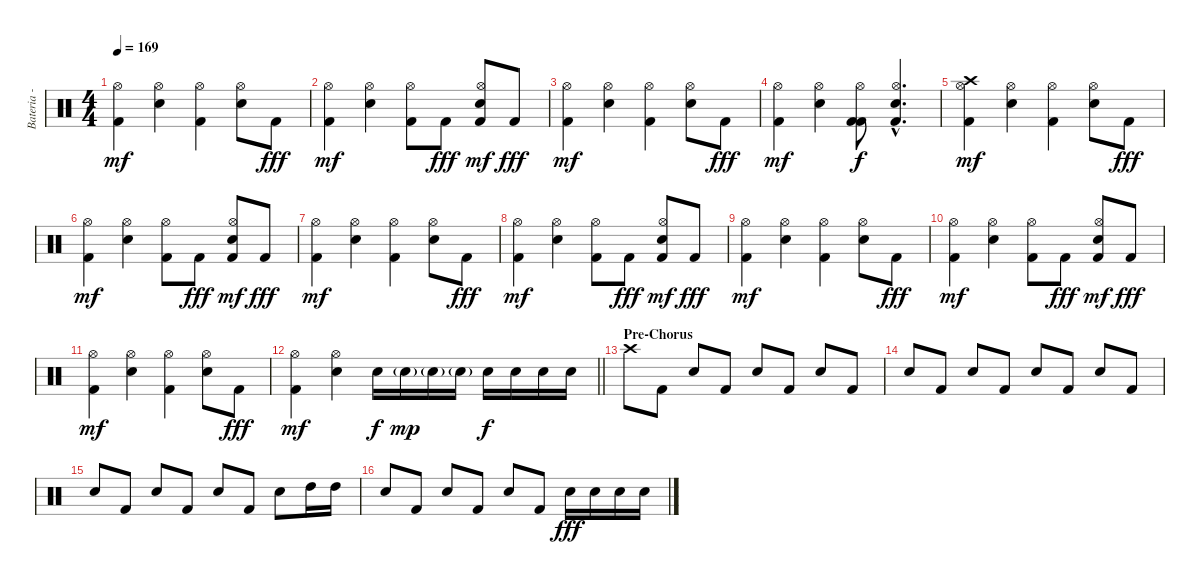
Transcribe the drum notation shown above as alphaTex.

\track ("Bateria - Larzon" "Bateria - ") {instrument percussion}
\staff {score}
\articulation defaults
\ts (4 4)
\tempo 169
\clef neutral
\ks c
("Kick (hit) 2" "Hi-Hat (open)").4{dy mf} ("Electric Snare (hit)" "Hi-Hat (open)").4 ("Kick (hit) 2" "Hi-Hat (open)").4 ("Electric Snare (hit)" "Hi-Hat (open)").8 "Kick (hit) 2".8{dy fff} |
("Kick (hit) 2" "Hi-Hat (open)").4{dy mf} ("Electric Snare (hit)" "Hi-Hat (open)").4 ("Kick (hit) 2" "Hi-Hat (open)").8 "Kick (hit) 2".8{dy fff} ("Electric Snare (hit)" "Kick (hit) 2" "Hi-Hat (open)").8{dy mf} "Kick (hit) 2".8{dy fff} |
("Kick (hit) 2" "Hi-Hat (open)").4{dy mf} ("Electric Snare (hit)" "Hi-Hat (open)").4 ("Kick (hit) 2" "Hi-Hat (open)").4 ("Electric Snare (hit)" "Hi-Hat (open)").8 "Kick (hit) 2".8{dy fff} |
("Kick (hit) 2" "Hi-Hat (open)").4{dy mf} ("Electric Snare (hit)" "Hi-Hat (open)").4 ("Kick (hit) 2" "Kick (hit) 2" "Hi-Hat (open)").8{dy f} ("Electric Snare (hit)"{hac} "Kick (hit) 2"{hac} "Hi-Hat (open)"{hac}).4{d} |
("Kick (hit) 2" "Crash high (hit)" "Hi-Hat (open)").4{dy mf} ("Electric Snare (hit)" "Hi-Hat (open)").4 ("Kick (hit) 2" "Hi-Hat (open)").4 ("Electric Snare (hit)" "Hi-Hat (open)").8 "Kick (hit) 2".8{dy fff} |
("Kick (hit) 2" "Hi-Hat (open)").4{dy mf} ("Electric Snare (hit)" "Hi-Hat (open)").4 ("Kick (hit) 2" "Hi-Hat (open)").8 "Kick (hit) 2".8{dy fff} ("Electric Snare (hit)" "Kick (hit) 2" "Hi-Hat (open)").8{dy mf} "Kick (hit) 2".8{dy fff} |
("Kick (hit) 2" "Hi-Hat (open)").4{dy mf} ("Electric Snare (hit)" "Hi-Hat (open)").4 ("Kick (hit) 2" "Hi-Hat (open)").4 ("Electric Snare (hit)" "Hi-Hat (open)").8 "Kick (hit) 2".8{dy fff} |
("Kick (hit) 2" "Hi-Hat (open)").4{dy mf} ("Electric Snare (hit)" "Hi-Hat (open)").4 ("Kick (hit) 2" "Hi-Hat (open)").8 "Kick (hit) 2".8{dy fff} ("Electric Snare (hit)" "Kick (hit) 2" "Hi-Hat (open)").8{dy mf} "Kick (hit) 2".8{dy fff} |
("Kick (hit) 2" "Hi-Hat (open)").4{dy mf} ("Electric Snare (hit)" "Hi-Hat (open)").4 ("Kick (hit) 2" "Hi-Hat (open)").4 ("Electric Snare (hit)" "Hi-Hat (open)").8 "Kick (hit) 2".8{dy fff} |
("Kick (hit) 2" "Hi-Hat (open)").4{dy mf} ("Electric Snare (hit)" "Hi-Hat (open)").4 ("Kick (hit) 2" "Hi-Hat (open)").8 "Kick (hit) 2".8{dy fff} ("Electric Snare (hit)" "Kick (hit) 2" "Hi-Hat (open)").8{dy mf} "Kick (hit) 2".8{dy fff} |
("Kick (hit) 2" "Hi-Hat (open)").4{dy mf} ("Electric Snare (hit)" "Hi-Hat (open)").4 ("Kick (hit) 2" "Hi-Hat (open)").4 ("Electric Snare (hit)" "Hi-Hat (open)").8 "Kick (hit) 2".8{dy fff} |
\barLineRight lightlight
("Kick (hit) 2" "Hi-Hat (open)").4{dy mf} ("Electric Snare (hit)" "Hi-Hat (open)").4 "Electric Snare (hit)".16{dy f} "Electric Snare (hit)"{g}.16{dy mp} "Electric Snare (hit)"{g}.16 "Electric Snare (hit)"{g}.16 "Electric Snare (hit)".16{dy f} "Electric Snare (hit)".16 "Electric Snare (hit)".16 "Electric Snare (hit)".16 |
\section ("" "Pre-Chorus")
"Crash high (hit)".8 "Kick (hit) 2".8 "Electric Snare (hit)".8 "Kick (hit) 2".8 "Electric Snare (hit)".8 "Kick (hit) 2".8 "Electric Snare (hit)".8 "Kick (hit) 2".8 |
"Electric Snare (hit)".8 "Kick (hit) 2".8 "Electric Snare (hit)".8 "Kick (hit) 2".8 "Electric Snare (hit)".8 "Kick (hit) 2".8 "Electric Snare (hit)".8 "Kick (hit) 2".8 |
"Electric Snare (hit)".8 "Kick (hit) 2".8 "Electric Snare (hit)".8 "Kick (hit) 2".8 "Electric Snare (hit)".8 "Kick (hit) 2".8 "Electric Snare (hit)".8 "High Tom (hit)".16 "High Tom (hit)".16 |
"Electric Snare (hit)".8 "Kick (hit) 2".8 "Electric Snare (hit)".8 "Kick (hit) 2".8 "Electric Snare (hit)".8 "Kick (hit) 2".8 "Electric Snare (hit)".16{dy fff} "Electric Snare (hit)".16 "Electric Snare (hit)".16 "Electric Snare (hit)".16
